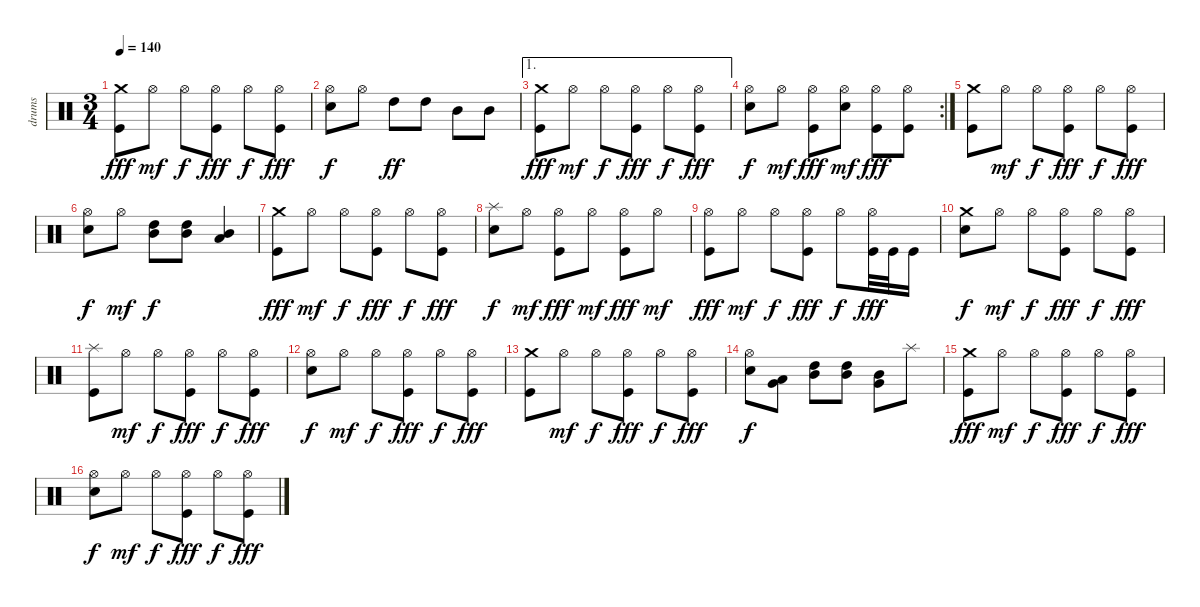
\track ("drums" "drums") {instrument percussion}
\staff {score}
\articulation defaults
\ts (3 4)
\tempo 140
\clef neutral
\ks c
("Crash medium (hit)" "Kick (hit)").8{dy fff} "Hi-Hat (open)".8{dy mf} "Hi-Hat (open)".8{dy f} ("Hi-Hat (open)" "Kick (hit)").8{dy fff} "Hi-Hat (open)".8{dy f} ("Hi-Hat (open)" "Kick (hit)").8{dy fff} |
("Hi-Hat (open)" "Snare (hit) 2").8{dy f} "Hi-Hat (open)".8 "High Tom (hit)".8{dy ff} "High Tom (hit)".8 "Mid Tom (hit)".8 "Mid Tom (hit)".8 |
\ae 1
("Crash medium (hit)" "Kick (hit)").8{dy fff} "Hi-Hat (open)".8{dy mf} "Hi-Hat (open)".8{dy f} ("Hi-Hat (open)" "Kick (hit)").8{dy fff} "Hi-Hat (open)".8{dy f} ("Hi-Hat (open)" "Kick (hit)").8{dy fff} |
\rc 2
("Hi-Hat (open)" "Snare (hit) 2").8{dy f} "Hi-Hat (open)".8{dy mf} ("Hi-Hat (open)" "Kick (hit)").8{dy fff} ("Hi-Hat (open)" "Snare (hit) 2").8{dy mf} ("Hi-Hat (open)" "Kick (hit)").8{dy fff} ("Hi-Hat (open)" "Kick (hit)").8 |
("Crash medium (hit)" "Kick (hit)").8 "Hi-Hat (open)".8{dy mf} "Hi-Hat (open)".8{dy f} ("Hi-Hat (open)" "Kick (hit)").8{dy fff} "Hi-Hat (open)".8{dy f} ("Hi-Hat (open)" "Kick (hit)").8{dy fff} |
("Hi-Hat (open)" "Snare (hit) 2").8{dy f} "Hi-Hat (open)".8{dy mf} ("High Tom (hit)" "Mid Tom (hit)").8{dy f} ("High Tom (hit)" "Mid Tom (hit)").8 ("Mid Tom (hit)" "Low Tom (hit)").4 |
("Crash medium (hit)" "Kick (hit)").8{dy fff} "Hi-Hat (open)".8{dy mf} "Hi-Hat (open)".8{dy f} ("Hi-Hat (open)" "Kick (hit)").8{dy fff} "Hi-Hat (open)".8{dy f} ("Hi-Hat (open)" "Kick (hit)").8{dy fff} |
("Splash (hit)" "Snare (hit) 2").8{dy f} "Hi-Hat (open)".8{dy mf} ("Hi-Hat (open)" "Kick (hit)").8{dy fff} "Hi-Hat (open)".8{dy mf} ("Hi-Hat (open)" "Kick (hit)").8{dy fff} "Hi-Hat (open)".8{dy mf} |
("Hi-Hat (open)" "Kick (hit)").8{dy fff} "Hi-Hat (open)".8{dy mf} "Hi-Hat (open)".8{dy f} ("Hi-Hat (open)" "Kick (hit)").8{dy fff} "Hi-Hat (open)".8{dy f} ("Hi-Hat (open)" "Kick (hit)").32{dy fff} "Kick (hit)".32 "Kick (hit)".16 |
("Crash medium (hit)" "Snare (hit) 2").8{dy f} "Hi-Hat (open)".8{dy mf} "Hi-Hat (open)".8{dy f} ("Hi-Hat (open)" "Kick (hit)").8{dy fff} "Hi-Hat (open)".8{dy f} ("Hi-Hat (open)" "Kick (hit)").8{dy fff} |
("Splash (hit)" "Kick (hit)").8 "Hi-Hat (open)".8{dy mf} "Hi-Hat (open)".8{dy f} ("Hi-Hat (open)" "Kick (hit)").8{dy fff} "Hi-Hat (open)".8{dy f} ("Hi-Hat (open)" "Kick (hit)").8{dy fff} |
("Hi-Hat (open)" "Snare (hit) 2").8{dy f} "Hi-Hat (open)".8{dy mf} "Hi-Hat (open)".8{dy f} ("Hi-Hat (open)" "Kick (hit)").8{dy fff} "Hi-Hat (open)".8{dy f} ("Hi-Hat (open)" "Kick (hit)").8{dy fff} |
("Crash medium (hit)" "Kick (hit)").8 "Hi-Hat (open)".8{dy mf} "Hi-Hat (open)".8{dy f} ("Hi-Hat (open)" "Kick (hit)").8{dy fff} "Hi-Hat (open)".8{dy f} ("Hi-Hat (open)" "Kick (hit)").8{dy fff} |
("Hi-Hat (open)" "Snare (hit) 2").8{dy f} ("Low Tom (hit)" "Very Low Tom (hit)").8 ("High Tom (hit)" "Mid Tom (hit)").8 ("High Tom (hit)" "Mid Tom (hit)").8 ("Mid Tom (hit)" "Very Low Tom (hit)").8 "Splash (hit)".8 |
("Crash medium (hit)" "Kick (hit)").8{dy fff} "Hi-Hat (open)".8{dy mf} "Hi-Hat (open)".8{dy f} ("Hi-Hat (open)" "Kick (hit)").8{dy fff} "Hi-Hat (open)".8{dy f} ("Hi-Hat (open)" "Kick (hit)").8{dy fff} |
("Hi-Hat (open)" "Snare (hit) 2").8{dy f} "Hi-Hat (open)".8{dy mf} "Hi-Hat (open)".8{dy f} ("Hi-Hat (open)" "Kick (hit)").8{dy fff} "Hi-Hat (open)".8{dy f} ("Hi-Hat (open)" "Kick (hit)").8{dy fff}
